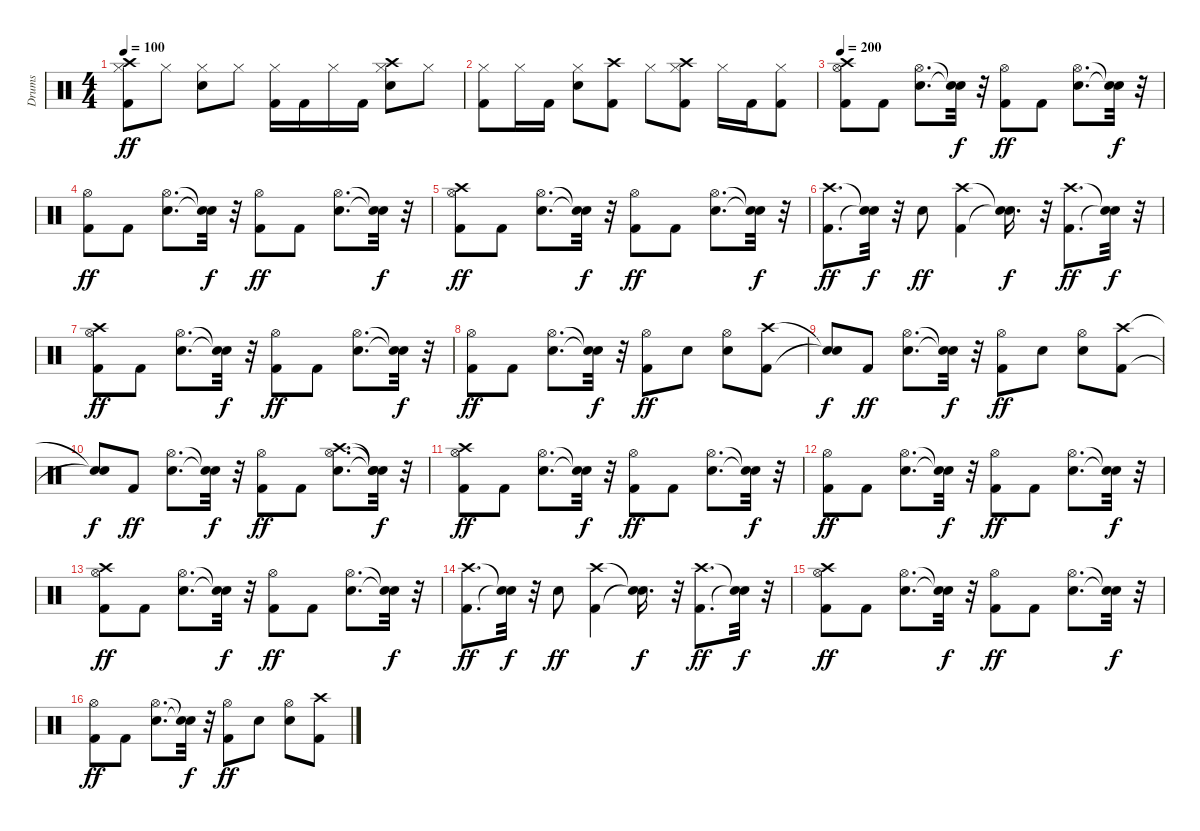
\track ("Drums" "Drums") {instrument percussion}
\staff {score}
\articulation defaults
\ts (4 4)
\tempo 100
\clef neutral
\ks c
("Kick (hit) 2" "Hi-Hat (closed)" "Crash high (hit)").8{dy ff} "Hi-Hat (closed)".8 ("Snare (hit) 2" "Hi-Hat (closed)").8 "Hi-Hat (closed)".8 ("Kick (hit) 2" "Hi-Hat (closed)").16 "Kick (hit) 2".16 "Hi-Hat (closed)".16 "Kick (hit) 2".16 ("Snare (hit) 2" "Hi-Hat (closed)" "Crash high (hit)").8 "Hi-Hat (closed)".8 |
("Kick (hit) 2" "Hi-Hat (closed)").8 "Hi-Hat (closed)".16 "Kick (hit) 2".16 ("Snare (hit) 2" "Hi-Hat (closed)").8 ("Kick (hit) 2" "Crash high (hit)").8 "Hi-Hat (closed)".8 ("Kick (hit) 2" "Hi-Hat (closed)" "Crash high (hit)").8 "Hi-Hat (closed)".16 "Kick (hit) 2".16 ("Kick (hit) 2" "Hi-Hat (closed)").8 |
\tempo 200
("Kick (hit) 2" "Hi-Hat (open)" "Crash high (hit)").8 "Kick (hit) 2".8 ("Snare (hit) 2" "Hi-Hat (open)").8{d} ("Snare (hit)"{t} "Snare (hit)"{t}).32{dy f} r.32 ("Kick (hit) 2" "Hi-Hat (open)").8{dy ff} "Kick (hit) 2".8 ("Snare (hit) 2" "Hi-Hat (open)").8{d} ("Snare (hit)"{t} "Snare (hit)"{t}).32{dy f} r.32 |
("Kick (hit) 2" "Hi-Hat (open)").8{dy ff} "Kick (hit) 2".8 ("Snare (hit) 2" "Hi-Hat (open)").8{d} ("Snare (hit)"{t} "Snare (hit)"{t}).32{dy f} r.32 ("Kick (hit) 2" "Hi-Hat (open)").8{dy ff} "Kick (hit) 2".8 ("Snare (hit) 2" "Hi-Hat (open)").8{d} ("Snare (hit)"{t} "Snare (hit)"{t}).32{dy f} r.32 |
("Kick (hit) 2" "Hi-Hat (open)" "Crash high (hit)").8{dy ff} "Kick (hit) 2".8 ("Snare (hit) 2" "Hi-Hat (open)").8{d} ("Snare (hit)"{t} "Snare (hit)"{t}).32{dy f} r.32 ("Kick (hit) 2" "Hi-Hat (open)").8{dy ff} "Kick (hit) 2".8 ("Snare (hit) 2" "Hi-Hat (open)").8{d} ("Snare (hit)"{t} "Snare (hit)"{t}).32{dy f} r.32 |
("Kick (hit) 2" "Crash high (hit)").8{d dy ff} ("Snare (hit)"{t} "Snare (hit)"{t}).32{dy f} r.32 "Snare (hit) 2".8{dy ff} ("Kick (hit) 2" "Crash high (hit)").4 ("Snare (hit)"{t} "Snare (hit)"{t}).16{d dy f} r.32 ("Kick (hit) 2" "Crash high (hit)").8{d dy ff} ("Snare (hit)"{t} "Snare (hit)"{t}).32{dy f} r.32 |
("Kick (hit) 2" "Hi-Hat (open)" "Crash high (hit)").8{dy ff} "Kick (hit) 2".8 ("Snare (hit) 2" "Hi-Hat (open)").8{d} ("Snare (hit)"{t} "Snare (hit)"{t}).32{dy f} r.32 ("Kick (hit) 2" "Hi-Hat (open)").8{dy ff} "Kick (hit) 2".8 ("Snare (hit) 2" "Hi-Hat (open)").8{d} ("Snare (hit)"{t} "Snare (hit)"{t}).32{dy f} r.32 |
("Kick (hit) 2" "Hi-Hat (open)").8{dy ff} "Kick (hit) 2".8 ("Snare (hit) 2" "Hi-Hat (open)").8{d} ("Snare (hit)"{t} "Snare (hit)"{t}).32{dy f} r.32 ("Kick (hit) 2" "Hi-Hat (open)").8{dy ff} "Snare (hit) 2".8 ("Snare (hit) 2" "Hi-Hat (open)").8 ("Kick (hit) 2" "Crash high (hit)").8 |
("Snare (hit)"{t} "Snare (hit)"{t}).8{dy f} "Kick (hit) 2".8{dy ff} ("Snare (hit) 2" "Hi-Hat (open)").8{d} ("Snare (hit)"{t} "Snare (hit)"{t}).32{dy f} r.32 ("Kick (hit) 2" "Hi-Hat (open)").8{dy ff} "Snare (hit) 2".8 ("Snare (hit) 2" "Hi-Hat (open)").8 ("Kick (hit) 2" "Crash high (hit)").8 |
("Snare (hit)"{t} "Snare (hit)"{t}).8{dy f} "Kick (hit) 2".8{dy ff} ("Snare (hit) 2" "Hi-Hat (open)").8{d} ("Snare (hit)"{t} "Snare (hit)"{t}).32{dy f} r.32 ("Kick (hit) 2" "Hi-Hat (open)").8{dy ff} "Kick (hit) 2".8 ("Snare (hit) 2" "Hi-Hat (open)" "Crash high (hit)").8{d} ("Snare (hit)"{t} "Snare (hit)"{t} "Snare (hit)"{t}).32{dy f} r.32 |
("Kick (hit) 2" "Hi-Hat (open)" "Crash high (hit)").8{dy ff} "Kick (hit) 2".8 ("Snare (hit) 2" "Hi-Hat (open)").8{d} ("Snare (hit)"{t} "Snare (hit)"{t}).32{dy f} r.32 ("Kick (hit) 2" "Hi-Hat (open)").8{dy ff} "Kick (hit) 2".8 ("Snare (hit) 2" "Hi-Hat (open)").8{d} ("Snare (hit)"{t} "Snare (hit)"{t}).32{dy f} r.32 |
("Kick (hit) 2" "Hi-Hat (open)").8{dy ff} "Kick (hit) 2".8 ("Snare (hit) 2" "Hi-Hat (open)").8{d} ("Snare (hit)"{t} "Snare (hit)"{t}).32{dy f} r.32 ("Kick (hit) 2" "Hi-Hat (open)").8{dy ff} "Kick (hit) 2".8 ("Snare (hit) 2" "Hi-Hat (open)").8{d} ("Snare (hit)"{t} "Snare (hit)"{t}).32{dy f} r.32 |
("Kick (hit) 2" "Hi-Hat (open)" "Crash high (hit)").8{dy ff} "Kick (hit) 2".8 ("Snare (hit) 2" "Hi-Hat (open)").8{d} ("Snare (hit)"{t} "Snare (hit)"{t}).32{dy f} r.32 ("Kick (hit) 2" "Hi-Hat (open)").8{dy ff} "Kick (hit) 2".8 ("Snare (hit) 2" "Hi-Hat (open)").8{d} ("Snare (hit)"{t} "Snare (hit)"{t}).32{dy f} r.32 |
("Kick (hit) 2" "Crash high (hit)").8{d dy ff} ("Snare (hit)"{t} "Snare (hit)"{t}).32{dy f} r.32 "Snare (hit) 2".8{dy ff} ("Kick (hit) 2" "Crash high (hit)").4 ("Snare (hit)"{t} "Snare (hit)"{t}).16{d dy f} r.32 ("Kick (hit) 2" "Crash high (hit)").8{d dy ff} ("Snare (hit)"{t} "Snare (hit)"{t}).32{dy f} r.32 |
("Kick (hit) 2" "Hi-Hat (open)" "Crash high (hit)").8{dy ff} "Kick (hit) 2".8 ("Snare (hit) 2" "Hi-Hat (open)").8{d} ("Snare (hit)"{t} "Snare (hit)"{t}).32{dy f} r.32 ("Kick (hit) 2" "Hi-Hat (open)").8{dy ff} "Kick (hit) 2".8 ("Snare (hit) 2" "Hi-Hat (open)").8{d} ("Snare (hit)"{t} "Snare (hit)"{t}).32{dy f} r.32 |
("Kick (hit) 2" "Hi-Hat (open)").8{dy ff} "Kick (hit) 2".8 ("Snare (hit) 2" "Hi-Hat (open)").8{d} ("Snare (hit)"{t} "Snare (hit)"{t}).32{dy f} r.32 ("Kick (hit) 2" "Hi-Hat (open)").8{dy ff} "Snare (hit) 2".8 ("Snare (hit) 2" "Hi-Hat (open)").8 ("Kick (hit) 2" "Crash high (hit)").8
